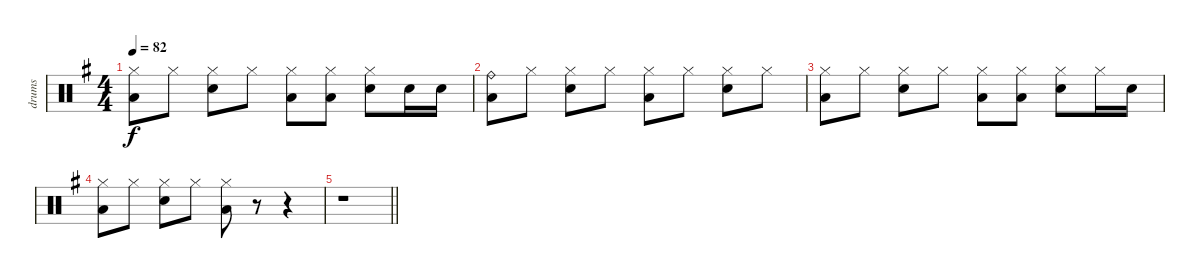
\track ("drums" "drums") {instrument percussion}
\staff {score}
\articulation defaults
\ts (4 4)
\tempo 82
\clef neutral
\ks g
("Hi-Hat (closed)" "Low Floor Tom (hit)").8{dy f} "Hi-Hat (closed)".8 ("Hi-Hat (closed)" "Electric Snare (hit)").8 "Hi-Hat (closed)".8 ("Hi-Hat (closed)" "Low Floor Tom (hit)").8 ("Hi-Hat (closed)" "Low Floor Tom (hit)").8 ("Hi-Hat (closed)" "Electric Snare (hit)").8 "Electric Snare (hit)".16 "Electric Snare (hit)".16 |
("Ride (bell)" "Low Floor Tom (hit)").8 "Hi-Hat (closed)".8 ("Hi-Hat (closed)" "Electric Snare (hit)").8 "Hi-Hat (closed)".8 ("Hi-Hat (closed)" "Low Floor Tom (hit)").8 "Hi-Hat (closed)".8 ("Hi-Hat (closed)" "Electric Snare (hit)").8 "Hi-Hat (closed)".8 |
("Hi-Hat (closed)" "Low Floor Tom (hit)").8 "Hi-Hat (closed)".8 ("Hi-Hat (closed)" "Electric Snare (hit)").8 "Hi-Hat (closed)".8 ("Hi-Hat (closed)" "Low Floor Tom (hit)").8 ("Hi-Hat (closed)" "Low Floor Tom (hit)").8 ("Hi-Hat (closed)" "Electric Snare (hit)").8 "Hi-Hat (closed)".16 "Electric Snare (hit)".16 |
("Hi-Hat (closed)" "Low Floor Tom (hit)").8 "Hi-Hat (closed)".8 ("Hi-Hat (closed)" "Electric Snare (hit)").8 "Hi-Hat (closed)".8 ("Hi-Hat (closed)" "Low Floor Tom (hit)").8 r.8 r.4 |
\barLineRight lightlight
r.1
